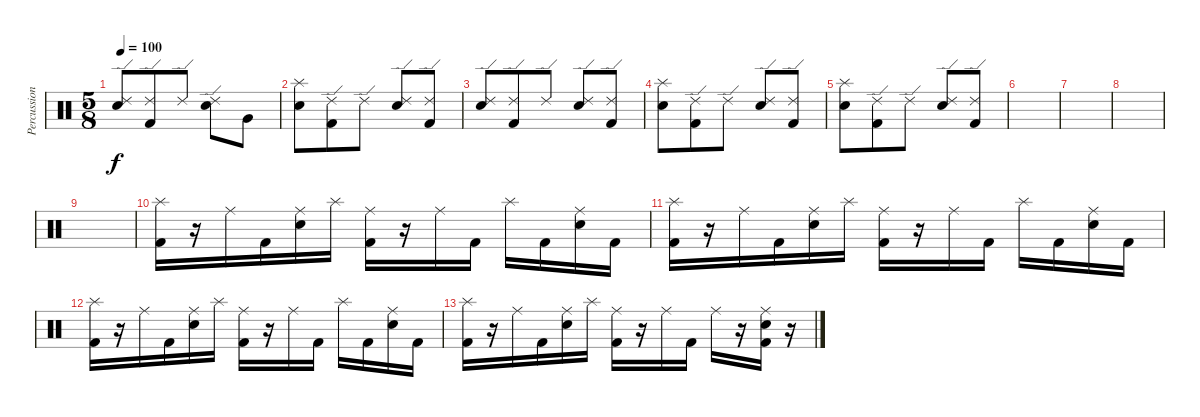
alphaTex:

\track ("Percussion" "Percussion") {instrument percussion}
\staff {score}
\articulation defaults
\ts (5 8)
\tempo 100
\clef neutral
\ks c
("Ride (edge) 2" "Electric Snare (hit)").8{dy f} ("Ride (edge) 2" "Kick (hit) 2").8 "Ride (edge) 2".8 ("Ride (edge) 2" "Electric Snare (hit)").8 "Very Low Tom (hit)".8 |
("Splash (hit)" "Electric Snare (hit)").8 ("Ride (edge) 2" "Kick (hit) 2").8 "Ride (edge) 2".8 ("Ride (edge) 2" "Electric Snare (hit)").8 ("Ride (edge) 2" "Kick (hit) 2").8 |
("Ride (edge) 2" "Electric Snare (hit)").8 ("Ride (edge) 2" "Kick (hit) 2").8 "Ride (edge) 2".8 ("Ride (edge) 2" "Electric Snare (hit)").8 ("Ride (edge) 2" "Kick (hit) 2").8 |
("Splash (hit)" "Electric Snare (hit)").8 ("Ride (edge) 2" "Kick (hit) 2").8 "Ride (edge) 2".8 ("Ride (edge) 2" "Electric Snare (hit)").8 ("Ride (edge) 2" "Kick (hit) 2").8 |
("Splash (hit)" "Electric Snare (hit)").8 ("Ride (edge) 2" "Kick (hit) 2").8 "Ride (edge) 2".8 ("Ride (edge) 2" "Electric Snare (hit)").8 ("Ride (edge) 2" "Kick (hit) 2").8 |
|
|
|
|
("Splash (hit)" "Kick (hit) 2").16 r.16 "Ride (middle)".16 "Kick (hit) 2".16 ("Ride (middle)" "Electric Snare (hit)").16 "Splash (hit)".16 ("Ride (middle)" "Kick (hit) 2").16 r.16 "Ride (middle)".16 "Kick (hit) 2".16 "Splash (hit)".16 "Kick (hit) 2".16 ("Ride (middle)" "Electric Snare (hit)").16 "Kick (hit) 2".16 |
("Splash (hit)" "Kick (hit) 2").16 r.16 "Ride (middle)".16 "Kick (hit) 2".16 ("Ride (middle)" "Electric Snare (hit)").16 "Splash (hit)".16 ("Ride (middle)" "Kick (hit) 2").16 r.16 "Ride (middle)".16 "Kick (hit) 2".16 "Splash (hit)".16 "Kick (hit) 2".16 ("Ride (middle)" "Electric Snare (hit)").16 "Kick (hit) 2".16 |
("Splash (hit)" "Kick (hit) 2").16 r.16 "Ride (middle)".16 "Kick (hit) 2".16 ("Ride (middle)" "Electric Snare (hit)").16 "Splash (hit)".16 ("Ride (middle)" "Kick (hit) 2").16 r.16 "Ride (middle)".16 "Kick (hit) 2".16 "Splash (hit)".16 "Kick (hit) 2".16 ("Ride (middle)" "Electric Snare (hit)").16 "Kick (hit) 2".16 |
("Splash (hit)" "Kick (hit) 2").16 r.16 "Ride (middle)".16 "Kick (hit) 2".16 ("Ride (middle)" "Electric Snare (hit)").16 "Splash (hit)".16 ("Ride (middle)" "Kick (hit) 2").16 r.16 "Ride (middle)".16 "Kick (hit) 2".16 "Ride (middle)".16 r.16 ("Ride (middle)" "Electric Snare (hit)" "Kick (hit) 2").16 r.16
